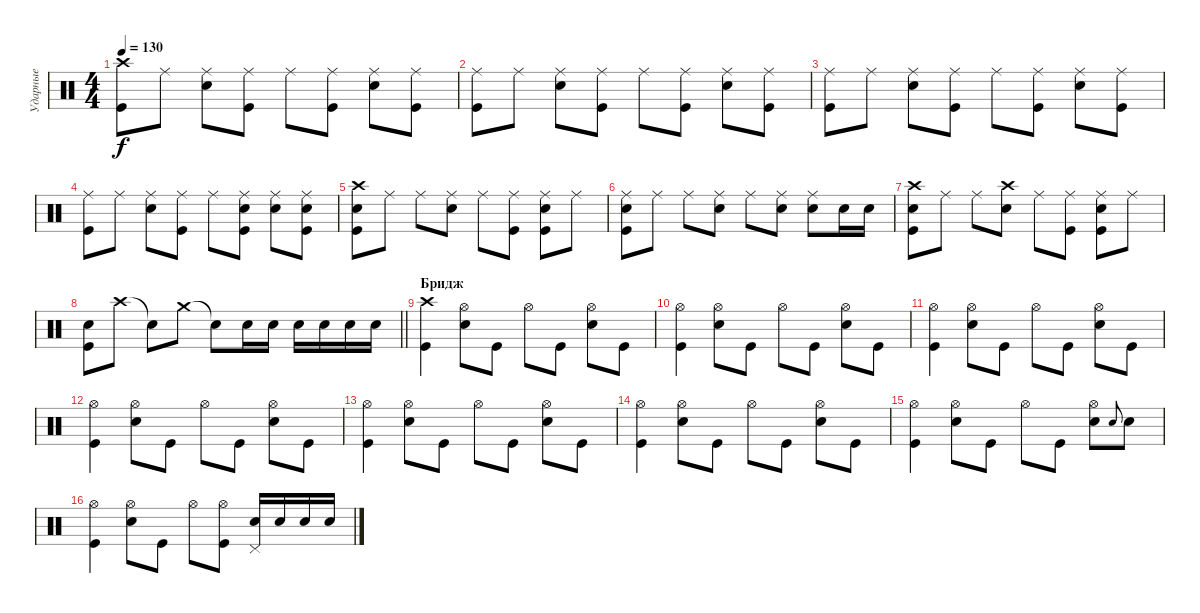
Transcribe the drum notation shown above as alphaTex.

\track ("Ударные" "Ударные") {instrument percussion}
\staff {score}
\articulation defaults
\ts (4 4)
\tempo 130
\clef neutral
\ks c
("Crash high (hit)" "Kick (hit)").8{dy f} "Ride (middle)".8 ("Ride (middle)" "Snare (hit) 2").8 ("Ride (middle)" "Kick (hit)").8 "Ride (middle)".8 ("Ride (middle)" "Kick (hit)").8 ("Ride (middle)" "Snare (hit) 2").8 ("Ride (middle)" "Kick (hit)").8 |
("Ride (middle)" "Kick (hit)").8 "Ride (middle)".8 ("Ride (middle)" "Snare (hit) 2").8 ("Ride (middle)" "Kick (hit)").8 "Ride (middle)".8 ("Ride (middle)" "Kick (hit)").8 ("Ride (middle)" "Snare (hit) 2").8 ("Ride (middle)" "Kick (hit)").8 |
("Ride (middle)" "Kick (hit)").8 "Ride (middle)".8 ("Ride (middle)" "Snare (hit) 2").8 ("Ride (middle)" "Kick (hit)").8 "Ride (middle)".8 ("Ride (middle)" "Kick (hit)").8 ("Ride (middle)" "Snare (hit) 2").8 ("Ride (middle)" "Kick (hit)").8 |
("Ride (middle)" "Kick (hit)").8 "Ride (middle)".8 ("Ride (middle)" "Snare (hit) 2").8 ("Ride (middle)" "Kick (hit)").8 "Ride (middle)".8 ("Ride (middle)" "Snare (hit) 2" "Kick (hit)").8 ("Ride (middle)" "Snare (hit) 2").8 ("Ride (middle)" "Snare (hit) 2" "Kick (hit)").8 |
("Crash high (hit)" "Snare (hit) 2" "Kick (hit)").8 "Ride (middle)".8 "Ride (middle)".8 ("Ride (middle)" "Snare (hit) 2").8 "Ride (middle)".8 ("Ride (middle)" "Kick (hit)").8 ("Ride (middle)" "Snare (hit) 2" "Kick (hit)").8 "Ride (middle)".8 |
("Ride (middle)" "Snare (hit) 2" "Kick (hit)").8 "Ride (middle)".8 "Ride (middle)".8 ("Ride (middle)" "Snare (hit) 2").8 "Ride (middle)".8 ("Ride (middle)" "Snare (hit) 2").8 ("Ride (middle)" "Snare (hit) 2").8 "Snare (hit) 2".16 "Snare (hit) 2".16 |
("Crash high (hit)" "Snare (hit) 2" "Kick (hit)").8 "Ride (middle)".8 "Ride (middle)".8 ("Crash high (hit)" "Snare (hit) 2").8 "Ride (middle)".8 ("Ride (middle)" "Kick (hit)").8 ("Ride (middle)" "Snare (hit) 2" "Kick (hit)").8 "Ride (middle)".8 |
\barLineRight lightlight
("Snare (hit) 2" "Kick (hit)").8 "Crash high (hit)".8 "Snare (hit)"{t}.8 "Crash medium (hit)".8 "Snare (hit)"{t}.8 "Snare (hit) 2".16 "Snare (hit) 2".16 "Snare (hit) 2".16 "Snare (hit) 2".16 "Snare (hit) 2".16 "Snare (hit) 2".16 |
\section ("" "Бридж")
("Crash high (hit)" "Kick (hit)").4 ("Hi-Hat (open)" "Snare (hit) 2").8 "Kick (hit)".8 "Hi-Hat (open)".8 "Kick (hit)".8 ("Hi-Hat (open)" "Snare (hit) 2").8 "Kick (hit)".8 |
("Hi-Hat (open)" "Kick (hit)").4 ("Hi-Hat (open)" "Snare (hit) 2").8 "Kick (hit)".8 "Hi-Hat (open)".8 "Kick (hit)".8 ("Hi-Hat (open)" "Snare (hit) 2").8 "Kick (hit)".8 |
("Hi-Hat (open)" "Kick (hit)").4 ("Hi-Hat (open)" "Snare (hit) 2").8 "Kick (hit)".8 "Hi-Hat (open)".8 "Kick (hit)".8 ("Hi-Hat (open)" "Snare (hit) 2").8 "Kick (hit)".8 |
("Hi-Hat (open)" "Kick (hit)").4 ("Hi-Hat (open)" "Snare (hit) 2").8 "Kick (hit)".8 "Hi-Hat (open)".8 "Kick (hit)".8 ("Hi-Hat (open)" "Snare (hit) 2").8 "Kick (hit)".8 |
("Hi-Hat (open)" "Kick (hit)").4 ("Hi-Hat (open)" "Snare (hit) 2").8 "Kick (hit)".8 "Hi-Hat (open)".8 "Kick (hit)".8 ("Hi-Hat (open)" "Snare (hit) 2").8 "Kick (hit)".8 |
("Hi-Hat (open)" "Kick (hit)").4 ("Hi-Hat (open)" "Snare (hit) 2").8 "Kick (hit)".8 "Hi-Hat (open)".8 "Kick (hit)".8 ("Hi-Hat (open)" "Snare (hit) 2").8 "Kick (hit)".8 |
("Hi-Hat (open)" "Kick (hit)").4 ("Hi-Hat (open)" "Snare (hit) 2").8 "Kick (hit)".8 "Hi-Hat (open)".8 "Kick (hit)".8 ("Hi-Hat (open)" "Snare (hit) 2").8 "Snare (hit) 2".8{gr onbeat} "Snare (hit) 2".8 |
("Hi-Hat (open)" "Kick (hit)").4 ("Hi-Hat (open)" "Snare (hit) 2").8 "Kick (hit)".8 "Hi-Hat (open)".8 ("Hi-Hat (open)" "Kick (hit)").8 ("Pedal Hi-Hat (hit)" "Snare (hit) 2").16 "Snare (hit) 2".16 "Snare (hit) 2".16 "Snare (hit) 2".16
